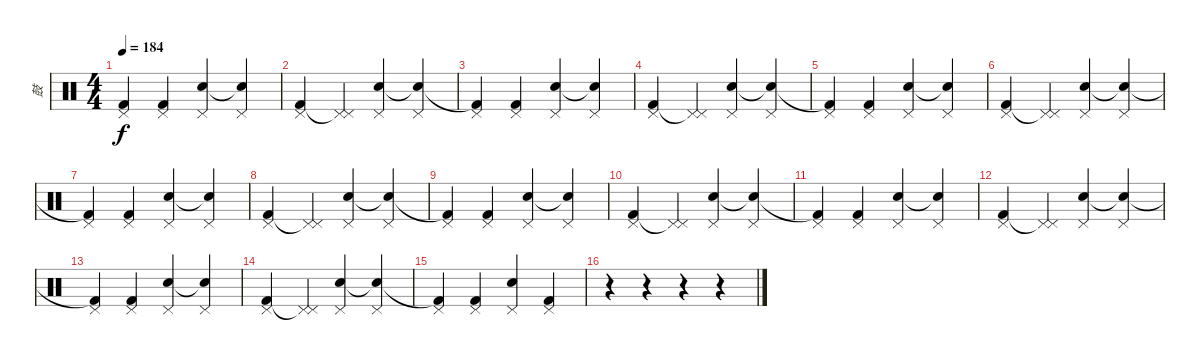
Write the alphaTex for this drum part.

\track ("鼓" "鼓") {instrument percussion}
\staff {score}
\articulation defaults
\ts (4 4)
\tempo 184
\clef neutral
\ks c
("Pedal Hi-Hat (hit)" "Kick (hit) 2"{t}).4{dy f} ("Pedal Hi-Hat (hit)" "Kick (hit) 2").4 ("Pedal Hi-Hat (hit)" "Electric Snare (hit)").4 ("Pedal Hi-Hat (hit)" "Snare (hit)"{t}).4 |
("Pedal Hi-Hat (hit)" "Kick (hit) 2").4 ("Pedal Hi-Hat (hit)" "Pedal Hi-Hat (hit)"{t}).4 ("Pedal Hi-Hat (hit)" "Electric Snare (hit)").4 ("Pedal Hi-Hat (hit)" "Snare (hit)"{t}).4 |
("Pedal Hi-Hat (hit)" "Kick (hit) 2"{t}).4 ("Pedal Hi-Hat (hit)" "Kick (hit) 2").4 ("Pedal Hi-Hat (hit)" "Electric Snare (hit)").4 ("Pedal Hi-Hat (hit)" "Snare (hit)"{t}).4 |
("Pedal Hi-Hat (hit)" "Kick (hit) 2").4 ("Pedal Hi-Hat (hit)" "Pedal Hi-Hat (hit)"{t}).4 ("Pedal Hi-Hat (hit)" "Electric Snare (hit)").4 ("Pedal Hi-Hat (hit)" "Snare (hit)"{t}).4 |
("Pedal Hi-Hat (hit)" "Kick (hit) 2"{t}).4 ("Pedal Hi-Hat (hit)" "Kick (hit) 2").4 ("Pedal Hi-Hat (hit)" "Electric Snare (hit)").4 ("Pedal Hi-Hat (hit)" "Snare (hit)"{t}).4 |
("Pedal Hi-Hat (hit)" "Kick (hit) 2").4 ("Pedal Hi-Hat (hit)" "Pedal Hi-Hat (hit)"{t}).4 ("Pedal Hi-Hat (hit)" "Electric Snare (hit)").4 ("Pedal Hi-Hat (hit)" "Snare (hit)"{t}).4 |
("Pedal Hi-Hat (hit)" "Kick (hit) 2"{t}).4 ("Pedal Hi-Hat (hit)" "Kick (hit) 2").4 ("Pedal Hi-Hat (hit)" "Electric Snare (hit)").4 ("Pedal Hi-Hat (hit)" "Snare (hit)"{t}).4 |
("Pedal Hi-Hat (hit)" "Kick (hit) 2").4 ("Pedal Hi-Hat (hit)" "Pedal Hi-Hat (hit)"{t}).4 ("Pedal Hi-Hat (hit)" "Electric Snare (hit)").4 ("Pedal Hi-Hat (hit)" "Snare (hit)"{t}).4 |
("Pedal Hi-Hat (hit)" "Kick (hit) 2"{t}).4 ("Pedal Hi-Hat (hit)" "Kick (hit) 2").4 ("Pedal Hi-Hat (hit)" "Electric Snare (hit)").4 ("Pedal Hi-Hat (hit)" "Snare (hit)"{t}).4 |
("Pedal Hi-Hat (hit)" "Kick (hit) 2").4 ("Pedal Hi-Hat (hit)" "Pedal Hi-Hat (hit)"{t}).4 ("Pedal Hi-Hat (hit)" "Electric Snare (hit)").4 ("Pedal Hi-Hat (hit)" "Snare (hit)"{t}).4 |
("Pedal Hi-Hat (hit)" "Kick (hit) 2"{t}).4 ("Pedal Hi-Hat (hit)" "Kick (hit) 2").4 ("Pedal Hi-Hat (hit)" "Electric Snare (hit)").4 ("Pedal Hi-Hat (hit)" "Snare (hit)"{t}).4 |
("Pedal Hi-Hat (hit)" "Kick (hit) 2").4 ("Pedal Hi-Hat (hit)" "Pedal Hi-Hat (hit)"{t}).4 ("Pedal Hi-Hat (hit)" "Electric Snare (hit)").4 ("Pedal Hi-Hat (hit)" "Snare (hit)"{t}).4 |
("Pedal Hi-Hat (hit)" "Kick (hit) 2"{t}).4 ("Pedal Hi-Hat (hit)" "Kick (hit) 2").4 ("Pedal Hi-Hat (hit)" "Electric Snare (hit)").4 ("Pedal Hi-Hat (hit)" "Snare (hit)"{t}).4 |
("Pedal Hi-Hat (hit)" "Kick (hit) 2").4 ("Pedal Hi-Hat (hit)" "Pedal Hi-Hat (hit)"{t}).4 ("Pedal Hi-Hat (hit)" "Electric Snare (hit)").4 ("Pedal Hi-Hat (hit)" "Snare (hit)"{t}).4 |
("Pedal Hi-Hat (hit)" "Kick (hit) 2"{t}).4 ("Pedal Hi-Hat (hit)" "Kick (hit) 2").4 ("Pedal Hi-Hat (hit)" "Electric Snare (hit)").4 ("Pedal Hi-Hat (hit)" "Kick (hit) 2").4 |
r.4 r.4 r.4 r.4
